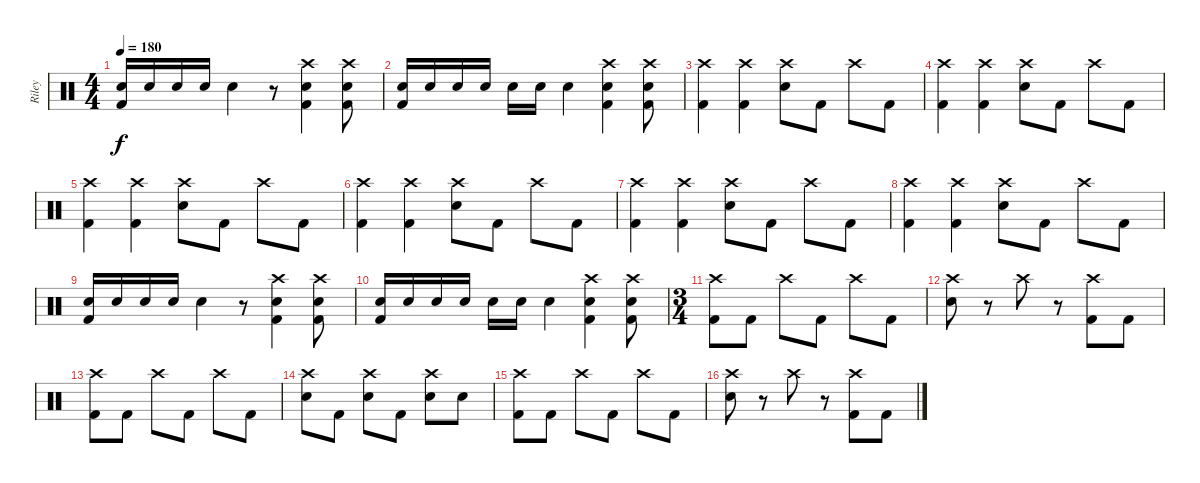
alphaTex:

\track ("Riley" "Riley") {instrument percussion}
\staff {score}
\articulation defaults
\ts (4 4)
\tempo 180
\clef neutral
\ks c
("Electric Snare (hit)" "Kick (hit) 2").16{dy f} "Electric Snare (hit)".16 "Electric Snare (hit)".16 "Electric Snare (hit)".16 "Electric Snare (hit)".4 r.8 ("Crash high (hit)" "Electric Snare (hit)" "Kick (hit) 2").4 ("Crash high (hit)" "Electric Snare (hit)" "Kick (hit) 2").8 |
("Electric Snare (hit)" "Kick (hit) 2").16 "Electric Snare (hit)".16 "Electric Snare (hit)".16 "Electric Snare (hit)".16 "Electric Snare (hit)".16 "Electric Snare (hit)".16 "Electric Snare (hit)".4 ("Crash high (hit)" "Electric Snare (hit)" "Kick (hit) 2").4 ("Crash high (hit)" "Electric Snare (hit)" "Kick (hit) 2").8 |
("Crash high (hit)" "Kick (hit) 2").4 ("Crash high (hit)" "Kick (hit) 2").4 ("Crash high (hit)" "Electric Snare (hit)").8 "Kick (hit) 2".8 "Crash high (hit)".8 "Kick (hit) 2".8 |
("Crash high (hit)" "Kick (hit) 2").4 ("Crash high (hit)" "Kick (hit) 2").4 ("Crash high (hit)" "Electric Snare (hit)").8 "Kick (hit) 2".8 "Crash high (hit)".8 "Kick (hit) 2".8 |
("Crash high (hit)" "Kick (hit) 2").4 ("Crash high (hit)" "Kick (hit) 2").4 ("Crash high (hit)" "Electric Snare (hit)").8 "Kick (hit) 2".8 "Crash high (hit)".8 "Kick (hit) 2".8 |
("Crash high (hit)" "Kick (hit) 2").4 ("Crash high (hit)" "Kick (hit) 2").4 ("Crash high (hit)" "Electric Snare (hit)").8 "Kick (hit) 2".8 "Crash high (hit)".8 "Kick (hit) 2".8 |
("Crash high (hit)" "Kick (hit) 2").4 ("Crash high (hit)" "Kick (hit) 2").4 ("Crash high (hit)" "Electric Snare (hit)").8 "Kick (hit) 2".8 "Crash high (hit)".8 "Kick (hit) 2".8 |
("Crash high (hit)" "Kick (hit) 2").4 ("Crash high (hit)" "Kick (hit) 2").4 ("Crash high (hit)" "Electric Snare (hit)").8 "Kick (hit) 2".8 "Crash high (hit)".8 "Kick (hit) 2".8 |
("Electric Snare (hit)" "Kick (hit) 2").16 "Electric Snare (hit)".16 "Electric Snare (hit)".16 "Electric Snare (hit)".16 "Electric Snare (hit)".4 r.8 ("Crash high (hit)" "Electric Snare (hit)" "Kick (hit) 2").4 ("Crash high (hit)" "Electric Snare (hit)" "Kick (hit) 2").8 |
("Electric Snare (hit)" "Kick (hit) 2").16 "Electric Snare (hit)".16 "Electric Snare (hit)".16 "Electric Snare (hit)".16 "Electric Snare (hit)".16 "Electric Snare (hit)".16 "Electric Snare (hit)".4 ("Crash high (hit)" "Electric Snare (hit)" "Kick (hit) 2").4 ("Crash high (hit)" "Electric Snare (hit)" "Kick (hit) 2").8 |
\ts (3 4)
("Crash high (hit)" "Kick (hit) 2").8 "Kick (hit) 2".8 "Crash high (hit)".8 "Kick (hit) 2".8 "Crash high (hit)".8 "Kick (hit) 2".8 |
("Crash high (hit)" "Electric Snare (hit)").8 r.8 "Crash high (hit)".8 r.8 ("Crash high (hit)" "Kick (hit) 2").8 "Kick (hit) 2".8 |
("Crash high (hit)" "Kick (hit) 2").8 "Kick (hit) 2".8 "Crash high (hit)".8 "Kick (hit) 2".8 "Crash high (hit)".8 "Kick (hit) 2".8 |
("Crash high (hit)" "Electric Snare (hit)").8 "Kick (hit) 2".8 ("Crash high (hit)" "Electric Snare (hit)").8 "Kick (hit) 2".8 ("Crash high (hit)" "Electric Snare (hit)").8 "Electric Snare (hit)".8 |
("Crash high (hit)" "Kick (hit) 2").8 "Kick (hit) 2".8 "Crash high (hit)".8 "Kick (hit) 2".8 "Crash high (hit)".8 "Kick (hit) 2".8 |
("Crash high (hit)" "Electric Snare (hit)").8 r.8 "Crash high (hit)".8 r.8 ("Crash high (hit)" "Kick (hit) 2").8 "Kick (hit) 2".8
